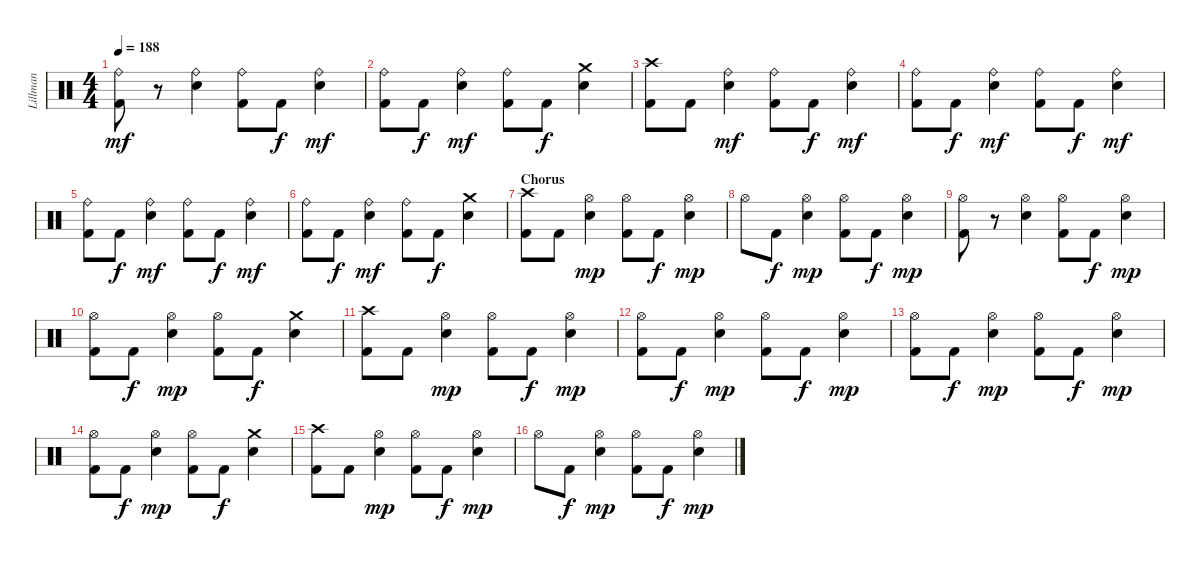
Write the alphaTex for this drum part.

\track ("Lillman" "Lillman") {instrument percussion}
\staff {score}
\articulation defaults
\ts (4 4)
\tempo 188
\clef neutral
\ks c
("Ride (bell)" "Kick (hit) 2").8{dy mf} r.8 ("Ride (bell)" "Snare (hit) 2").4 ("Ride (bell)" "Kick (hit) 2").8 "Kick (hit) 2".8{dy f} ("Ride (bell)" "Snare (hit) 2").4{dy mf} |
("Ride (bell)" "Kick (hit) 2").8 "Kick (hit) 2".8{dy f} ("Ride (bell)" "Snare (hit) 2").4{dy mf} ("Ride (bell)" "Kick (hit) 2").8 "Kick (hit) 2".8{dy f} ("Crash medium (hit)" "Snare (hit) 2").4 |
("Crash high (hit)" "Kick (hit) 2").8 "Kick (hit) 2".8 ("Ride (bell)" "Snare (hit) 2").4{dy mf} ("Ride (bell)" "Kick (hit) 2").8 "Kick (hit) 2".8{dy f} ("Ride (bell)" "Snare (hit) 2").4{dy mf} |
("Ride (bell)" "Kick (hit) 2").8 "Kick (hit) 2".8{dy f} ("Ride (bell)" "Snare (hit) 2").4{dy mf} ("Ride (bell)" "Kick (hit) 2").8 "Kick (hit) 2".8{dy f} ("Ride (bell)" "Snare (hit) 2").4{dy mf} |
("Ride (bell)" "Kick (hit) 2").8 "Kick (hit) 2".8{dy f} ("Ride (bell)" "Snare (hit) 2").4{dy mf} ("Ride (bell)" "Kick (hit) 2").8 "Kick (hit) 2".8{dy f} ("Ride (bell)" "Snare (hit) 2").4{dy mf} |
("Ride (bell)" "Kick (hit) 2").8 "Kick (hit) 2".8{dy f} ("Ride (bell)" "Snare (hit) 2").4{dy mf} ("Ride (bell)" "Kick (hit) 2").8 "Kick (hit) 2".8{dy f} ("Crash medium (hit)" "Snare (hit) 2").4 |
\section ("" "Chorus")
("Crash high (hit)" "Kick (hit) 2").8 "Kick (hit) 2".8 ("Hi-Hat (open)" "Snare (hit) 2").4{dy mp} ("Hi-Hat (open)" "Kick (hit) 2").8 "Kick (hit) 2".8{dy f} ("Hi-Hat (open)" "Snare (hit) 2").4{dy mp} |
"Hi-Hat (open)".8 "Kick (hit) 2".8{dy f} ("Hi-Hat (open)" "Snare (hit) 2").4{dy mp} ("Hi-Hat (open)" "Kick (hit) 2").8 "Kick (hit) 2".8{dy f} ("Hi-Hat (open)" "Snare (hit) 2").4{dy mp} |
("Hi-Hat (open)" "Kick (hit) 2").8 r.8 ("Hi-Hat (open)" "Snare (hit) 2").4 ("Hi-Hat (open)" "Kick (hit) 2").8 "Kick (hit) 2".8{dy f} ("Hi-Hat (open)" "Snare (hit) 2").4{dy mp} |
("Hi-Hat (open)" "Kick (hit) 2").8 "Kick (hit) 2".8{dy f} ("Hi-Hat (open)" "Snare (hit) 2").4{dy mp} ("Hi-Hat (open)" "Kick (hit) 2").8 "Kick (hit) 2".8{dy f} ("Crash medium (hit)" "Snare (hit) 2").4 |
("Crash high (hit)" "Kick (hit) 2").8 "Kick (hit) 2".8 ("Hi-Hat (open)" "Snare (hit) 2").4{dy mp} ("Hi-Hat (open)" "Kick (hit) 2").8 "Kick (hit) 2".8{dy f} ("Hi-Hat (open)" "Snare (hit) 2").4{dy mp} |
("Hi-Hat (open)" "Kick (hit) 2").8 "Kick (hit) 2".8{dy f} ("Hi-Hat (open)" "Snare (hit) 2").4{dy mp} ("Hi-Hat (open)" "Kick (hit) 2").8 "Kick (hit) 2".8{dy f} ("Hi-Hat (open)" "Snare (hit) 2").4{dy mp} |
("Hi-Hat (open)" "Kick (hit) 2").8 "Kick (hit) 2".8{dy f} ("Hi-Hat (open)" "Snare (hit) 2").4{dy mp} ("Hi-Hat (open)" "Kick (hit) 2").8 "Kick (hit) 2".8{dy f} ("Hi-Hat (open)" "Snare (hit) 2").4{dy mp} |
("Hi-Hat (open)" "Kick (hit) 2").8 "Kick (hit) 2".8{dy f} ("Hi-Hat (open)" "Snare (hit) 2").4{dy mp} ("Hi-Hat (open)" "Kick (hit) 2").8 "Kick (hit) 2".8{dy f} ("Crash medium (hit)" "Snare (hit) 2").4 |
("Crash high (hit)" "Kick (hit) 2").8 "Kick (hit) 2".8 ("Hi-Hat (open)" "Snare (hit) 2").4{dy mp} ("Hi-Hat (open)" "Kick (hit) 2").8 "Kick (hit) 2".8{dy f} ("Hi-Hat (open)" "Snare (hit) 2").4{dy mp} |
"Hi-Hat (open)".8 "Kick (hit) 2".8{dy f} ("Hi-Hat (open)" "Snare (hit) 2").4{dy mp} ("Hi-Hat (open)" "Kick (hit) 2").8 "Kick (hit) 2".8{dy f} ("Hi-Hat (open)" "Snare (hit) 2").4{dy mp}
